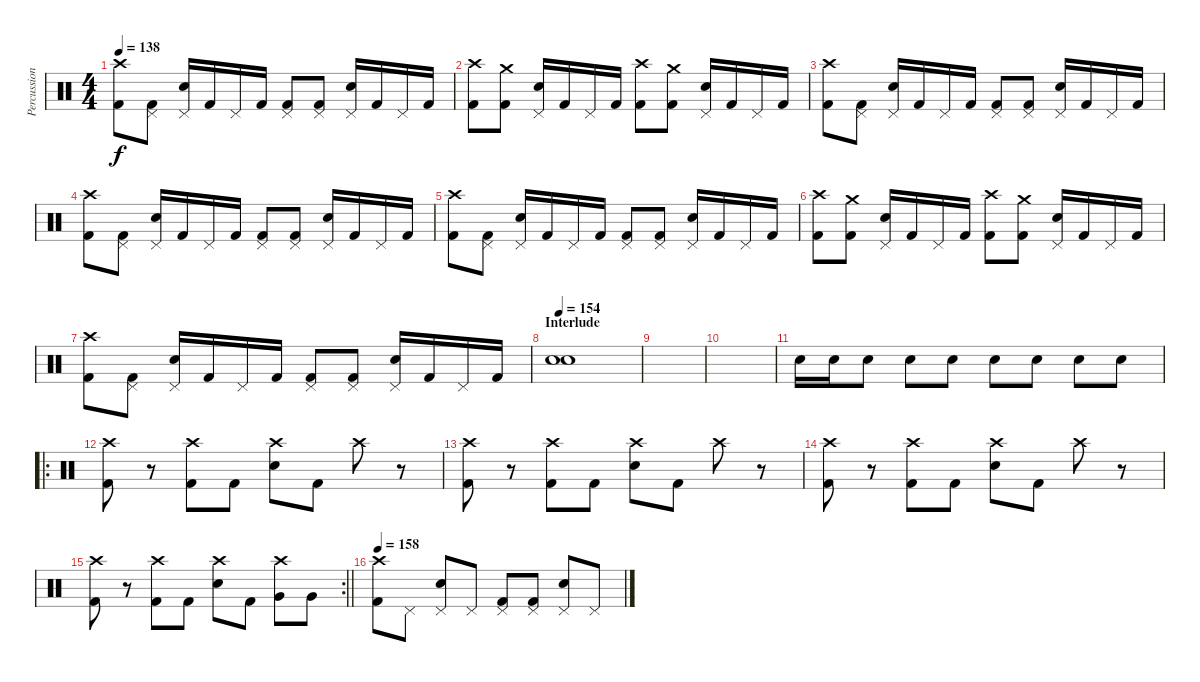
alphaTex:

\track ("Percussion" "Percussion") {instrument percussion}
\staff {score}
\articulation defaults
\ts (4 4)
\tempo 138
\clef neutral
\ks c
("Crash high (hit)" "Kick (hit) 2").8{dy f} ("Pedal Hi-Hat (hit)" "Kick (hit) 2").8 ("Pedal Hi-Hat (hit)" "Snare (hit) 2").16 "Kick (hit) 2".16 "Pedal Hi-Hat (hit)".16 "Kick (hit) 2".16 ("Pedal Hi-Hat (hit)" "Kick (hit) 2").8 ("Pedal Hi-Hat (hit)" "Kick (hit) 2").8 ("Pedal Hi-Hat (hit)" "Snare (hit) 2").16 "Kick (hit) 2".16 "Pedal Hi-Hat (hit)".16 "Kick (hit) 2".16 |
("Crash high (hit)" "Kick (hit) 2").8 ("Crash medium (hit)" "Kick (hit) 2").8 ("Pedal Hi-Hat (hit)" "Snare (hit) 2").16 "Kick (hit) 2".16 "Pedal Hi-Hat (hit)".16 "Kick (hit) 2".16 ("Crash high (hit)" "Kick (hit) 2").8 ("Crash medium (hit)" "Kick (hit) 2").8 ("Pedal Hi-Hat (hit)" "Snare (hit) 2").16 "Kick (hit) 2".16 "Pedal Hi-Hat (hit)".16 "Kick (hit) 2".16 |
("Crash high (hit)" "Kick (hit) 2").8 ("Pedal Hi-Hat (hit)" "Kick (hit) 2").8 ("Pedal Hi-Hat (hit)" "Snare (hit) 2").16 "Kick (hit) 2".16 "Pedal Hi-Hat (hit)".16 "Kick (hit) 2".16 ("Pedal Hi-Hat (hit)" "Kick (hit) 2").8 ("Pedal Hi-Hat (hit)" "Kick (hit) 2").8 ("Pedal Hi-Hat (hit)" "Snare (hit) 2").16 "Kick (hit) 2".16 "Pedal Hi-Hat (hit)".16 "Kick (hit) 2".16 |
("Crash high (hit)" "Kick (hit) 2").8 ("Pedal Hi-Hat (hit)" "Kick (hit) 2").8 ("Pedal Hi-Hat (hit)" "Snare (hit) 2").16 "Kick (hit) 2".16 "Pedal Hi-Hat (hit)".16 "Kick (hit) 2".16 ("Pedal Hi-Hat (hit)" "Kick (hit) 2").8 ("Pedal Hi-Hat (hit)" "Kick (hit) 2").8 ("Pedal Hi-Hat (hit)" "Snare (hit) 2").16 "Kick (hit) 2".16 "Pedal Hi-Hat (hit)".16 "Kick (hit) 2".16 |
("Crash high (hit)" "Kick (hit) 2").8 ("Pedal Hi-Hat (hit)" "Kick (hit) 2").8 ("Pedal Hi-Hat (hit)" "Snare (hit) 2").16 "Kick (hit) 2".16 "Pedal Hi-Hat (hit)".16 "Kick (hit) 2".16 ("Pedal Hi-Hat (hit)" "Kick (hit) 2").8 ("Pedal Hi-Hat (hit)" "Kick (hit) 2").8 ("Pedal Hi-Hat (hit)" "Snare (hit) 2").16 "Kick (hit) 2".16 "Pedal Hi-Hat (hit)".16 "Kick (hit) 2".16 |
("Crash high (hit)" "Kick (hit) 2").8 ("Crash medium (hit)" "Kick (hit) 2").8 ("Pedal Hi-Hat (hit)" "Snare (hit) 2").16 "Kick (hit) 2".16 "Pedal Hi-Hat (hit)".16 "Kick (hit) 2".16 ("Crash high (hit)" "Kick (hit) 2").8 ("Crash medium (hit)" "Kick (hit) 2").8 ("Pedal Hi-Hat (hit)" "Snare (hit) 2").16 "Kick (hit) 2".16 "Pedal Hi-Hat (hit)".16 "Kick (hit) 2".16 |
("Crash high (hit)" "Kick (hit) 2").8 ("Pedal Hi-Hat (hit)" "Kick (hit) 2").8 ("Pedal Hi-Hat (hit)" "Snare (hit) 2").16 "Kick (hit) 2".16 "Pedal Hi-Hat (hit)".16 "Kick (hit) 2".16 ("Pedal Hi-Hat (hit)" "Kick (hit) 2").8 ("Pedal Hi-Hat (hit)" "Kick (hit) 2").8 ("Pedal Hi-Hat (hit)" "Snare (hit) 2").16 "Kick (hit) 2".16 "Pedal Hi-Hat (hit)".16 "Kick (hit) 2".16 |
\section ("" "Interlude")
\tempo 154
("Snare (hit) 2" "Snare (hit) 2").1 |
|
|
"Snare (hit) 2".16 "Snare (hit) 2".16 "Snare (hit) 2".8 "Snare (hit) 2".8 "Snare (hit) 2".8 "Snare (hit) 2".8 "Snare (hit) 2".8 "Snare (hit) 2".8 "Snare (hit) 2".8 |
\ro
("Crash high (hit)" "Kick (hit) 2").8 r.8 ("Crash high (hit)" "Kick (hit) 2").8 "Kick (hit) 2".8 ("Crash high (hit)" "Snare (hit) 2").8 "Kick (hit) 2".8 "Crash high (hit)".8 r.8 |
("Crash high (hit)" "Kick (hit) 2").8 r.8 ("Crash high (hit)" "Kick (hit) 2").8 "Kick (hit) 2".8 ("Crash high (hit)" "Snare (hit) 2").8 "Kick (hit) 2".8 "Crash high (hit)".8 r.8 |
("Crash high (hit)" "Kick (hit) 2").8 r.8 ("Crash high (hit)" "Kick (hit) 2").8 "Kick (hit) 2".8 ("Crash high (hit)" "Snare (hit) 2").8 "Kick (hit) 2".8 "Crash high (hit)".8 r.8 |
\rc 2
\barLineRight lightlight
("Crash high (hit)" "Kick (hit) 2").8 r.8 ("Crash high (hit)" "Kick (hit) 2").8 "Kick (hit) 2".8 ("Crash high (hit)" "Snare (hit) 2").8 "Kick (hit) 2".8 ("Crash high (hit)" "Very Low Tom (hit)").8 "Very Low Tom (hit)".8 |
\tempo 158
("Crash high (hit)" "Kick (hit) 2").8 "Pedal Hi-Hat (hit)".8 ("Pedal Hi-Hat (hit)" "Snare (hit) 2").8 "Pedal Hi-Hat (hit)".8 ("Pedal Hi-Hat (hit)" "Kick (hit) 2").8 ("Pedal Hi-Hat (hit)" "Kick (hit) 2").8 ("Pedal Hi-Hat (hit)" "Snare (hit) 2").8 "Pedal Hi-Hat (hit)".8
